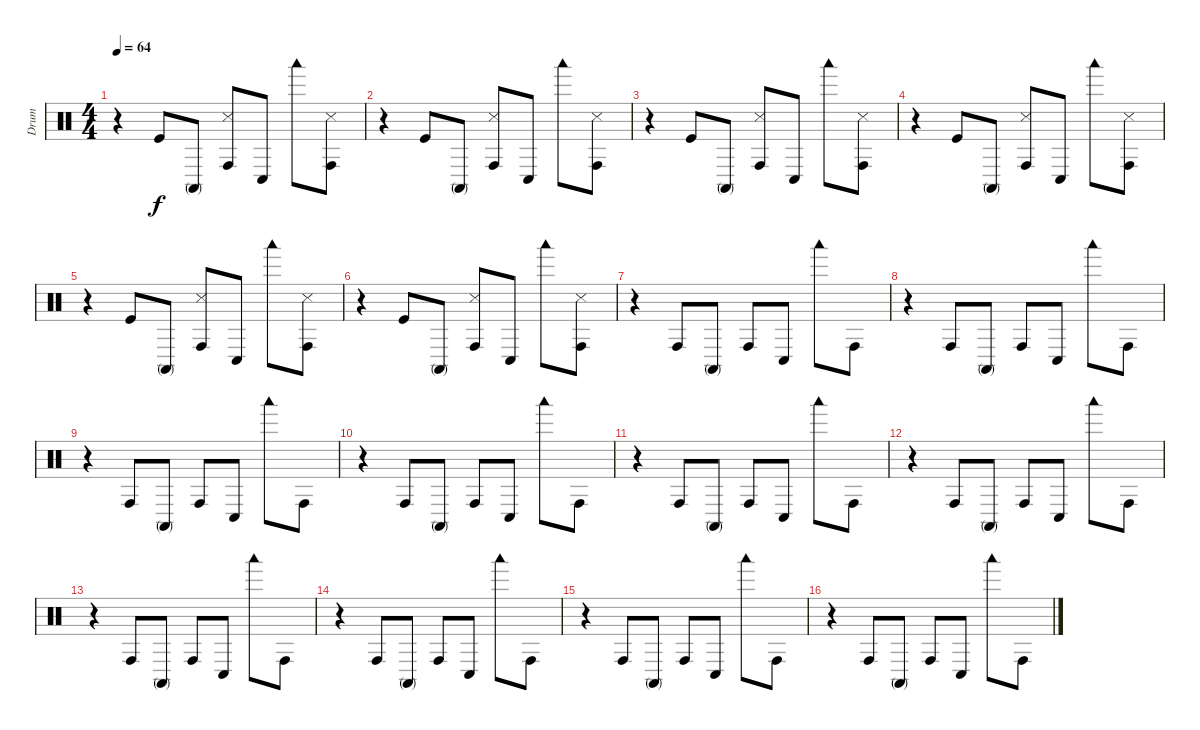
\track ("Drum" "Drum") {instrument percussion}
\staff {score}
\articulation defaults
\ts (4 4)
\tempo 64
\clef neutral
\ks c
r.4{dy f} "Kick (hit)".8 "Conga high (mute)".8 ("Snare (side stick) 3" "Conga high (hit)").8 "Conga low (hit)".8 "Woodblock low (hit)".8 ("Snare (side stick) 3" "Conga high (hit)").8 |
r.4 "Kick (hit)".8 "Conga high (mute)".8 ("Snare (side stick) 3" "Conga high (hit)").8 "Conga low (hit)".8 "Woodblock low (hit)".8 ("Snare (side stick) 3" "Conga high (hit)").8 |
r.4 "Kick (hit)".8 "Conga high (mute)".8 ("Snare (side stick) 3" "Conga high (hit)").8 "Conga low (hit)".8 "Woodblock low (hit)".8 ("Snare (side stick) 3" "Conga high (hit)").8 |
r.4 "Kick (hit)".8 "Conga high (mute)".8 ("Snare (side stick) 3" "Conga high (hit)").8 "Conga low (hit)".8 "Woodblock low (hit)".8 ("Snare (side stick) 3" "Conga high (hit)").8 |
r.4 "Kick (hit)".8 "Conga high (mute)".8 ("Snare (side stick) 3" "Conga high (hit)").8 "Conga low (hit)".8 "Woodblock low (hit)".8 ("Snare (side stick) 3" "Conga high (hit)").8 |
r.4 "Kick (hit)".8 "Conga high (mute)".8 ("Snare (side stick) 3" "Conga high (hit)").8 "Conga low (hit)".8 "Woodblock low (hit)".8 ("Snare (side stick) 3" "Conga high (hit)").8 |
r.4 "Conga high (hit)".8 "Conga high (mute)".8 "Conga high (hit)".8 "Conga low (hit)".8 "Woodblock low (hit)".8 "Conga high (hit)".8 |
r.4 "Conga high (hit)".8 "Conga high (mute)".8 "Conga high (hit)".8 "Conga low (hit)".8 "Woodblock low (hit)".8 "Conga high (hit)".8 |
r.4 "Conga high (hit)".8 "Conga high (mute)".8 "Conga high (hit)".8 "Conga low (hit)".8 "Woodblock low (hit)".8 "Conga high (hit)".8 |
r.4 "Conga high (hit)".8 "Conga high (mute)".8 "Conga high (hit)".8 "Conga low (hit)".8 "Woodblock low (hit)".8 "Conga high (hit)".8 |
r.4 "Conga high (hit)".8 "Conga high (mute)".8 "Conga high (hit)".8 "Conga low (hit)".8 "Woodblock low (hit)".8 "Conga high (hit)".8 |
r.4 "Conga high (hit)".8 "Conga high (mute)".8 "Conga high (hit)".8 "Conga low (hit)".8 "Woodblock low (hit)".8 "Conga high (hit)".8 |
r.4 "Conga high (hit)".8 "Conga high (mute)".8 "Conga high (hit)".8 "Conga low (hit)".8 "Woodblock low (hit)".8 "Conga high (hit)".8 |
r.4 "Conga high (hit)".8 "Conga high (mute)".8 "Conga high (hit)".8 "Conga low (hit)".8 "Woodblock low (hit)".8 "Conga high (hit)".8 |
r.4 "Conga high (hit)".8 "Conga high (mute)".8 "Conga high (hit)".8 "Conga low (hit)".8 "Woodblock low (hit)".8 "Conga high (hit)".8 |
r.4 "Conga high (hit)".8 "Conga high (mute)".8 "Conga high (hit)".8 "Conga low (hit)".8 "Woodblock low (hit)".8 "Conga high (hit)".8
